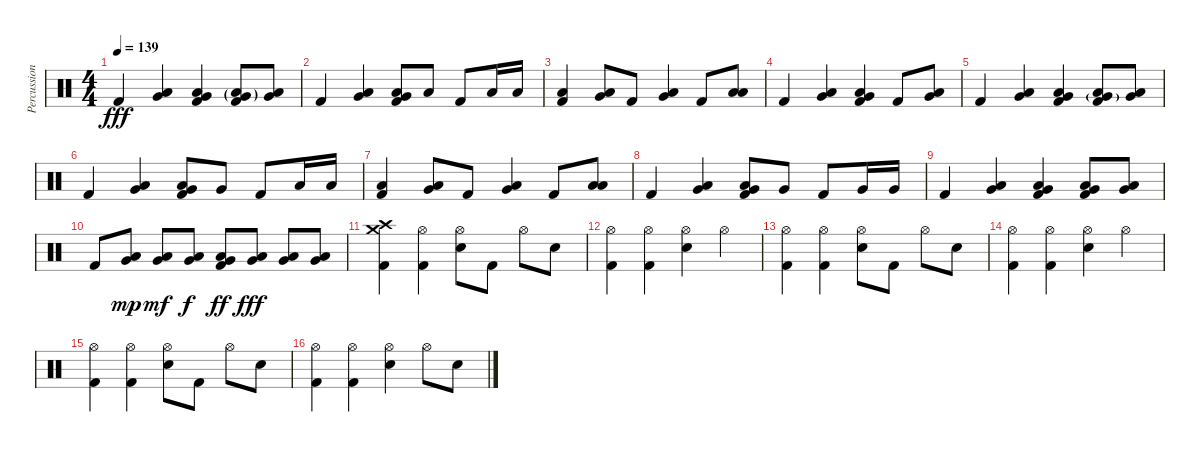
\track ("Percussion" "Percussion") {instrument percussion}
\staff {score}
\articulation defaults
\ts (4 4)
\tempo 139
\clef neutral
\ks c "Kick (hit) 2".4{dy fff}
("Very Low Tom (hit)" "Low Floor Tom (hit)").4{bd 240} ("Kick (hit) 2" "Very Low Tom (hit)" "Low Floor Tom (hit)").4{bd 240} ("Kick (hit) 2" "Very Low Tom (hit)"{g} "Low Floor Tom (hit)"{g}).8{bd 480} ("Very Low Tom (hit)" "Low Floor Tom (hit)").8{bd 480} |
"Kick (hit) 2".4 ("Very Low Tom (hit)" "Low Floor Tom (hit)").4{bd 240} ("Kick (hit) 2" "Very Low Tom (hit)" "Low Floor Tom (hit)").8{bd 480} "Low Floor Tom (hit)".8 "Kick (hit) 2".8 "Low Floor Tom (hit)".16 "Low Floor Tom (hit)".16 |
("Kick (hit) 2" "Low Floor Tom (hit)").4 ("Very Low Tom (hit)" "Low Floor Tom (hit)").8{bd 480} "Kick (hit) 2".8 ("Very Low Tom (hit)" "Low Floor Tom (hit)").4{bd 240} "Kick (hit) 2".8 ("Low Floor Tom (hit)" "Low Floor Tom (hit)").8{bd 480} |
"Kick (hit) 2".4 ("Very Low Tom (hit)" "Low Floor Tom (hit)").4{bd 240} ("Kick (hit) 2" "Very Low Tom (hit)" "Low Floor Tom (hit)").4{bd 240} "Kick (hit) 2".8 ("Very Low Tom (hit)" "Low Floor Tom (hit)").8{bd 480} |
"Kick (hit) 2".4 ("Very Low Tom (hit)" "Low Floor Tom (hit)").4{bd 240} ("Kick (hit) 2" "Very Low Tom (hit)" "Low Floor Tom (hit)").4{bd 240} ("Kick (hit) 2" "Very Low Tom (hit)"{g} "Low Floor Tom (hit)").8{bd 480} ("Very Low Tom (hit)" "Low Floor Tom (hit)").8{bd 480} |
"Kick (hit) 2".4 ("Very Low Tom (hit)" "Low Floor Tom (hit)").4{bd 240} ("Kick (hit) 2" "Very Low Tom (hit)" "Low Floor Tom (hit)").8{bd 480} "Very Low Tom (hit)".8 "Kick (hit) 2".8 "Low Floor Tom (hit)".16 "Low Floor Tom (hit)".16 |
("Kick (hit) 2" "Low Floor Tom (hit)").4 ("Very Low Tom (hit)" "Low Floor Tom (hit)").8{bd 480} "Kick (hit) 2".8 ("Very Low Tom (hit)" "Low Floor Tom (hit)").4{bd 240} "Kick (hit) 2".8 ("Low Floor Tom (hit)" "Low Floor Tom (hit)").8{bd 480} |
"Kick (hit) 2".4 ("Very Low Tom (hit)" "Low Floor Tom (hit)").4{bd 240} ("Kick (hit) 2" "Very Low Tom (hit)" "Low Floor Tom (hit)").8{bd 480} "Very Low Tom (hit)".8 "Kick (hit) 2".8 "Very Low Tom (hit)".16 "Very Low Tom (hit)".16 |
"Kick (hit) 2".4 ("Very Low Tom (hit)" "Low Floor Tom (hit)").4{bd 240} ("Kick (hit) 2" "Very Low Tom (hit)" "Low Floor Tom (hit)").4{bd 240} ("Kick (hit) 2" "Very Low Tom (hit)" "Low Floor Tom (hit)").8{bd 480} ("Very Low Tom (hit)" "Low Floor Tom (hit)").8{bd 480} |
"Kick (hit) 2".8 ("Low Tom (hit)" "Very Low Tom (hit)").8{bd 480 dy mp} ("Low Tom (hit)" "Very Low Tom (hit)").8{bd 480 dy mf} ("Low Tom (hit)" "Very Low Tom (hit)").8{bd 480 dy f} ("Kick (hit) 2" "Low Tom (hit)" "Very Low Tom (hit)").8{bd 480 dy ff} ("Low Tom (hit)" "Very Low Tom (hit)").8{bd 480 dy fff} ("Low Tom (hit)" "Very Low Tom (hit)").8{bd 480} ("Low Tom (hit)" "Very Low Tom (hit)").8{bd 480} |
("Crash high (hit)" "Crash medium (hit)" "Kick (hit) 2").4 ("Hi-Hat (open)" "Kick (hit) 2").4 ("Hi-Hat (open)" "Electric Snare (hit)").8 "Kick (hit) 2".8 "Hi-Hat (open)".8 "Electric Snare (hit)".8 |
("Hi-Hat (open)" "Kick (hit) 2").4 ("Hi-Hat (open)" "Kick (hit) 2").4 ("Hi-Hat (open)" "Electric Snare (hit)").4 "Hi-Hat (open)".4 |
("Hi-Hat (open)" "Kick (hit) 2").4 ("Hi-Hat (open)" "Kick (hit) 2").4 ("Hi-Hat (open)" "Electric Snare (hit)").8 "Kick (hit) 2".8 "Hi-Hat (open)".8 "Electric Snare (hit)".8 |
("Hi-Hat (open)" "Kick (hit) 2").4 ("Hi-Hat (open)" "Kick (hit) 2").4 ("Hi-Hat (open)" "Electric Snare (hit)").4 "Hi-Hat (open)".4 |
("Hi-Hat (open)" "Kick (hit) 2").4 ("Hi-Hat (open)" "Kick (hit) 2").4 ("Hi-Hat (open)" "Electric Snare (hit)").8 "Kick (hit) 2".8 "Hi-Hat (open)".8 "Electric Snare (hit)".8 |
("Hi-Hat (open)" "Kick (hit) 2").4 ("Hi-Hat (open)" "Kick (hit) 2").4 ("Hi-Hat (open)" "Electric Snare (hit)").4 "Hi-Hat (open)".8 "Electric Snare (hit)".8
